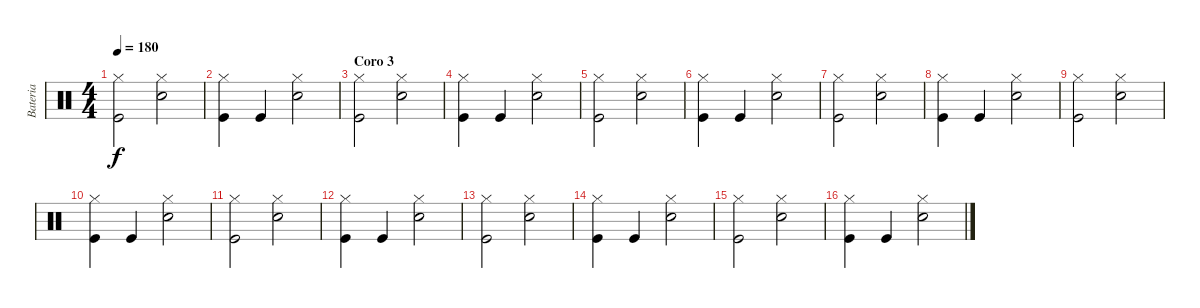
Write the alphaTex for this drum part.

\track ("Bateria" "Bateria") {instrument percussion}
\staff {score}
\articulation defaults
\ts (4 4)
\tempo 180
\clef neutral
\ks c
("Hi-Hat (closed)" "Kick (hit)").2{dy f} ("Hi-Hat (closed)" "Snare (hit) 2").2 |
("Hi-Hat (closed)" "Kick (hit)").4 "Kick (hit)".4 ("Hi-Hat (closed)" "Snare (hit) 2").2 |
\section ("" "Coro 3")
("Hi-Hat (closed)" "Kick (hit)").2 ("Hi-Hat (closed)" "Snare (hit) 2").2 |
("Hi-Hat (closed)" "Kick (hit)").4 "Kick (hit)".4 ("Hi-Hat (closed)" "Snare (hit) 2").2 |
("Hi-Hat (closed)" "Kick (hit)").2 ("Hi-Hat (closed)" "Snare (hit) 2").2 |
("Hi-Hat (closed)" "Kick (hit)").4 "Kick (hit)".4 ("Hi-Hat (closed)" "Snare (hit) 2").2 |
("Hi-Hat (closed)" "Kick (hit)").2 ("Hi-Hat (closed)" "Snare (hit) 2").2 |
("Hi-Hat (closed)" "Kick (hit)").4 "Kick (hit)".4 ("Hi-Hat (closed)" "Snare (hit) 2").2 |
("Hi-Hat (closed)" "Kick (hit)").2 ("Hi-Hat (closed)" "Snare (hit) 2").2 |
("Hi-Hat (closed)" "Kick (hit)").4 "Kick (hit)".4 ("Hi-Hat (closed)" "Snare (hit) 2").2 |
("Hi-Hat (closed)" "Kick (hit)").2 ("Hi-Hat (closed)" "Snare (hit) 2").2 |
("Hi-Hat (closed)" "Kick (hit)").4 "Kick (hit)".4 ("Hi-Hat (closed)" "Snare (hit) 2").2 |
("Hi-Hat (closed)" "Kick (hit)").2 ("Hi-Hat (closed)" "Snare (hit) 2").2 |
("Hi-Hat (closed)" "Kick (hit)").4 "Kick (hit)".4 ("Hi-Hat (closed)" "Snare (hit) 2").2 |
("Hi-Hat (closed)" "Kick (hit)").2 ("Hi-Hat (closed)" "Snare (hit) 2").2 |
("Hi-Hat (closed)" "Kick (hit)").4 "Kick (hit)".4 ("Hi-Hat (closed)" "Snare (hit) 2").2
